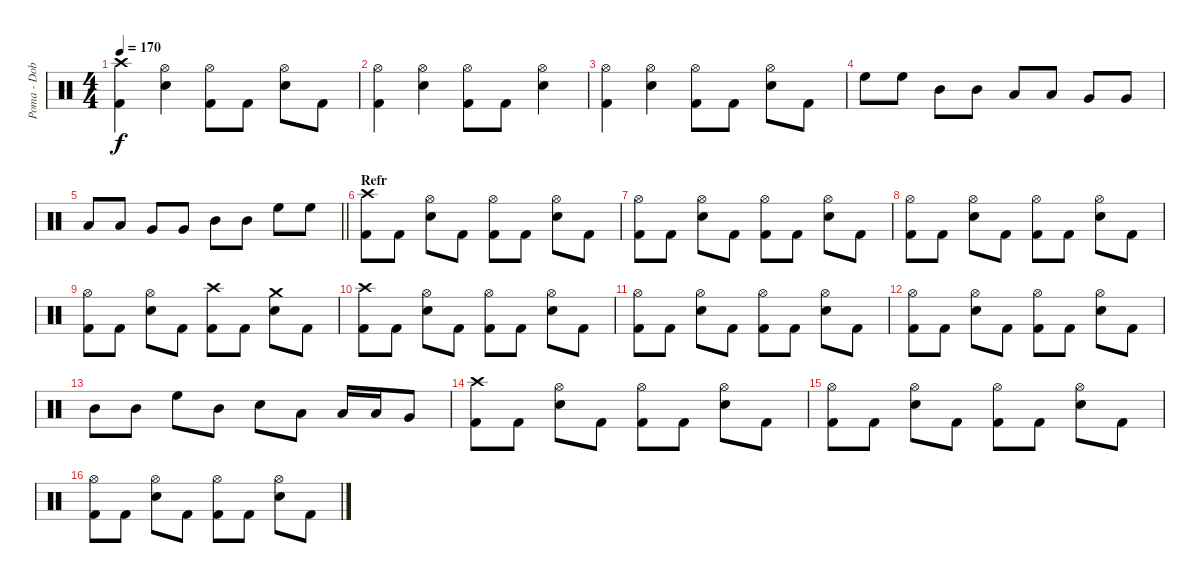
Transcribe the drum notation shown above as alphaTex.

\track ("Poma - Dob" "Poma - Dob") {instrument percussion}
\staff {score}
\articulation defaults
\ts (4 4)
\tempo 170
\clef neutral
\ks c
("Crash high (hit)" "Kick (hit) 2").4{dy f} ("Hi-Hat (open)" "Electric Snare (hit)").4 ("Hi-Hat (open)" "Kick (hit) 2").8 "Kick (hit) 2".8 ("Hi-Hat (open)" "Electric Snare (hit)").8 "Kick (hit) 2".8 |
("Hi-Hat (open)" "Kick (hit) 2").4 ("Hi-Hat (open)" "Electric Snare (hit)").4 ("Hi-Hat (open)" "Kick (hit) 2").8 "Kick (hit) 2".8 ("Hi-Hat (open)" "Electric Snare (hit)").4 |
("Hi-Hat (open)" "Kick (hit) 2").4 ("Hi-Hat (open)" "Electric Snare (hit)").4 ("Hi-Hat (open)" "Kick (hit) 2").8 "Kick (hit) 2".8 ("Hi-Hat (open)" "Electric Snare (hit)").8 "Kick (hit) 2".8 |
"High Floor Tom (hit)".8 "High Floor Tom (hit)".8 "Mid Tom (hit)".8 "Mid Tom (hit)".8 "Low Tom (hit)".8 "Low Tom (hit)".8 "Very Low Tom (hit)".8 "Very Low Tom (hit)".8 |
\barLineRight lightlight "Low Tom (hit)".8 "Low Tom (hit)".8 "Very Low Tom (hit)".8 "Very Low Tom (hit)".8 "Mid Tom (hit)".8 "Mid Tom (hit)".8 "High Floor Tom (hit)".8 "High Floor Tom (hit)".8
|
\section ("" "Refr")
("Crash high (hit)" "Kick (hit) 2").8 "Kick (hit) 2".8 ("Hi-Hat (open)" "Electric Snare (hit)").8 "Kick (hit) 2".8 ("Hi-Hat (open)" "Kick (hit) 2").8 "Kick (hit) 2".8 ("Hi-Hat (open)" "Electric Snare (hit)").8 "Kick (hit) 2".8 |
("Hi-Hat (open)" "Kick (hit) 2").8 "Kick (hit) 2".8 ("Hi-Hat (open)" "Electric Snare (hit)").8 "Kick (hit) 2".8 ("Hi-Hat (open)" "Kick (hit) 2").8 "Kick (hit) 2".8 ("Hi-Hat (open)" "Electric Snare (hit)").8 "Kick (hit) 2".8 |
("Hi-Hat (open)" "Kick (hit) 2").8 "Kick (hit) 2".8 ("Hi-Hat (open)" "Electric Snare (hit)").8 "Kick (hit) 2".8 ("Hi-Hat (open)" "Kick (hit) 2").8 "Kick (hit) 2".8 ("Hi-Hat (open)" "Electric Snare (hit)").8 "Kick (hit) 2".8 |
("Hi-Hat (open)" "Kick (hit) 2").8 "Kick (hit) 2".8 ("Hi-Hat (open)" "Electric Snare (hit)").8 "Kick (hit) 2".8 ("Crash high (hit)" "Kick (hit) 2").8 "Kick (hit) 2".8 ("Crash medium (hit)" "Electric Snare (hit)").8 "Kick (hit) 2".8 |
("Crash high (hit)" "Kick (hit) 2").8 "Kick (hit) 2".8 ("Hi-Hat (open)" "Electric Snare (hit)").8 "Kick (hit) 2".8 ("Hi-Hat (open)" "Kick (hit) 2").8 "Kick (hit) 2".8 ("Hi-Hat (open)" "Electric Snare (hit)").8 "Kick (hit) 2".8 |
("Hi-Hat (open)" "Kick (hit) 2").8 "Kick (hit) 2".8 ("Hi-Hat (open)" "Electric Snare (hit)").8 "Kick (hit) 2".8 ("Hi-Hat (open)" "Kick (hit) 2").8 "Kick (hit) 2".8 ("Hi-Hat (open)" "Electric Snare (hit)").8 "Kick (hit) 2".8 |
("Hi-Hat (open)" "Kick (hit) 2").8 "Kick (hit) 2".8 ("Hi-Hat (open)" "Electric Snare (hit)").8 "Kick (hit) 2".8 ("Hi-Hat (open)" "Kick (hit) 2").8 "Kick (hit) 2".8 ("Hi-Hat (open)" "Electric Snare (hit)").8 "Kick (hit) 2".8 |
"Mid Tom (hit)".8 "Mid Tom (hit)".8 "High Floor Tom (hit)".8 "Mid Tom (hit)".8 "Electric Snare (hit)".8 "Low Tom (hit)".8 "Low Tom (hit)".16 "Low Tom (hit)".16 "Very Low Tom (hit)".8 |
("Crash high (hit)" "Kick (hit) 2").8 "Kick (hit) 2".8 ("Hi-Hat (open)" "Electric Snare (hit)").8 "Kick (hit) 2".8 ("Hi-Hat (open)" "Kick (hit) 2").8 "Kick (hit) 2".8 ("Hi-Hat (open)" "Electric Snare (hit)").8 "Kick (hit) 2".8 |
("Hi-Hat (open)" "Kick (hit) 2").8 "Kick (hit) 2".8 ("Hi-Hat (open)" "Electric Snare (hit)").8 "Kick (hit) 2".8 ("Hi-Hat (open)" "Kick (hit) 2").8 "Kick (hit) 2".8 ("Hi-Hat (open)" "Electric Snare (hit)").8 "Kick (hit) 2".8 |
("Hi-Hat (open)" "Kick (hit) 2").8 "Kick (hit) 2".8 ("Hi-Hat (open)" "Electric Snare (hit)").8 "Kick (hit) 2".8 ("Hi-Hat (open)" "Kick (hit) 2").8 "Kick (hit) 2".8 ("Hi-Hat (open)" "Electric Snare (hit)").8 "Kick (hit) 2".8
